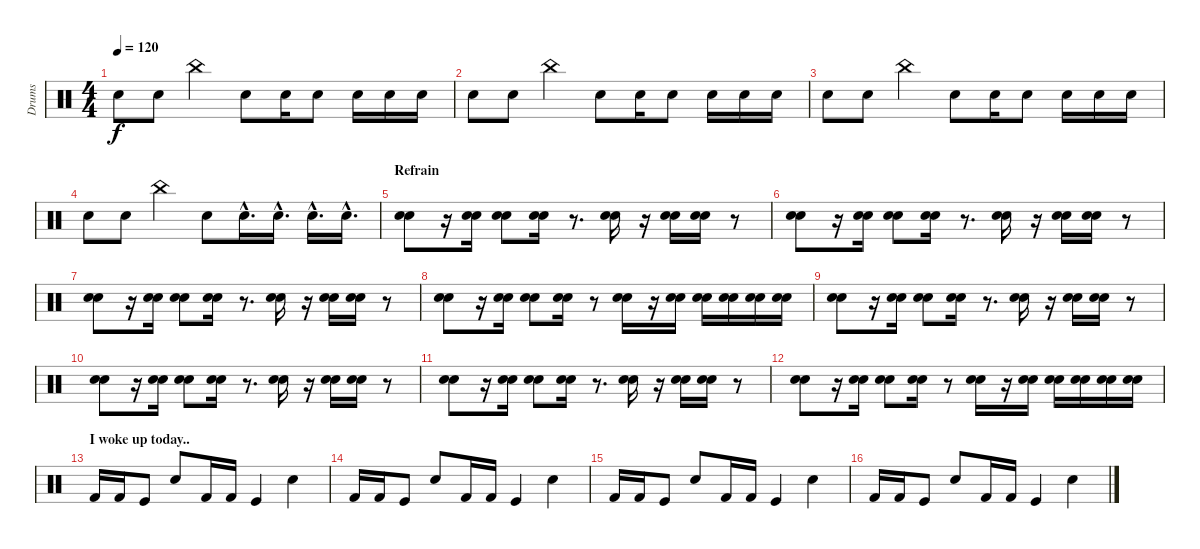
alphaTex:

\track ("Drums" "Drums") {instrument percussion}
\staff {score}
\articulation defaults
\ts (4 4)
\tempo 120
\clef neutral
\ks c "Snare (hit) 2".8{dy f} "Snare (hit) 2".8 "China (hit)".4 "Snare (hit) 2".8 "Snare (hit) 2".16 "Snare (hit) 2".8 "Snare (hit) 2".16 "Snare (hit) 2".16 "Snare (hit) 2".16
|
"Snare (hit) 2".8 "Snare (hit) 2".8 "China (hit)".4 "Snare (hit) 2".8 "Snare (hit) 2".16 "Snare (hit) 2".8 "Snare (hit) 2".16 "Snare (hit) 2".16 "Snare (hit) 2".16 |
"Snare (hit) 2".8 "Snare (hit) 2".8 "China (hit)".4 "Snare (hit) 2".8 "Snare (hit) 2".16 "Snare (hit) 2".8 "Snare (hit) 2".16 "Snare (hit) 2".16 "Snare (hit) 2".16 |
"Snare (hit) 2".8 "Snare (hit) 2".8 "China (hit)".4 "Snare (hit) 2".8 "Snare (hit) 2"{hac}.16{d} "Snare (hit) 2"{hac}.16{d} "Snare (hit) 2"{hac}.16{d} "Snare (hit) 2"{hac}.16{d} |
\section ("" "Refrain")
("Snare (hit) 2" "Electric Snare (hit)").8{volume 16} r.16 ("Snare (hit) 2" "Electric Snare (hit)").16 ("Snare (hit) 2" "Electric Snare (hit)").8 ("Snare (hit) 2" "Electric Snare (hit)").16 r.8{d} ("Snare (hit) 2" "Electric Snare (hit)").16 r.16 ("Snare (hit) 2" "Electric Snare (hit)").16 ("Snare (hit) 2" "Electric Snare (hit)").16 r.8 |
("Snare (hit) 2" "Electric Snare (hit)").8 r.16 ("Snare (hit) 2" "Electric Snare (hit)").16 ("Snare (hit) 2" "Electric Snare (hit)").8 ("Snare (hit) 2" "Electric Snare (hit)").16 r.8{d} ("Snare (hit) 2" "Electric Snare (hit)").16 r.16 ("Snare (hit) 2" "Electric Snare (hit)").16 ("Snare (hit) 2" "Electric Snare (hit)").16 r.8 |
("Snare (hit) 2" "Electric Snare (hit)").8 r.16 ("Snare (hit) 2" "Electric Snare (hit)").16 ("Snare (hit) 2" "Electric Snare (hit)").8 ("Snare (hit) 2" "Electric Snare (hit)").16 r.8{d} ("Snare (hit) 2" "Electric Snare (hit)").16 r.16 ("Snare (hit) 2" "Electric Snare (hit)").16 ("Snare (hit) 2" "Electric Snare (hit)").16 r.8 |
("Snare (hit) 2" "Electric Snare (hit)").8 r.16 ("Snare (hit) 2" "Electric Snare (hit)").16 ("Snare (hit) 2" "Electric Snare (hit)").8 ("Snare (hit) 2" "Electric Snare (hit)").16 r.8 ("Snare (hit) 2" "Electric Snare (hit)").16 r.16 ("Snare (hit) 2" "Electric Snare (hit)").16 ("Snare (hit) 2" "Electric Snare (hit)").16 ("Snare (hit) 2" "Electric Snare (hit)").16 ("Snare (hit) 2" "Electric Snare (hit)").16 ("Snare (hit) 2" "Electric Snare (hit)").16 |
("Snare (hit) 2" "Electric Snare (hit)").8{volume 13} r.16 ("Snare (hit) 2" "Electric Snare (hit)").16 ("Snare (hit) 2" "Electric Snare (hit)").8 ("Snare (hit) 2" "Electric Snare (hit)").16 r.8{d} ("Snare (hit) 2" "Electric Snare (hit)").16 r.16 ("Snare (hit) 2" "Electric Snare (hit)").16 ("Snare (hit) 2" "Electric Snare (hit)").16 r.8 |
("Snare (hit) 2" "Electric Snare (hit)").8 r.16 ("Snare (hit) 2" "Electric Snare (hit)").16 ("Snare (hit) 2" "Electric Snare (hit)").8 ("Snare (hit) 2" "Electric Snare (hit)").16 r.8{d} ("Snare (hit) 2" "Electric Snare (hit)").16 r.16 ("Snare (hit) 2" "Electric Snare (hit)").16 ("Snare (hit) 2" "Electric Snare (hit)").16 r.8 |
("Snare (hit) 2" "Electric Snare (hit)").8 r.16 ("Snare (hit) 2" "Electric Snare (hit)").16 ("Snare (hit) 2" "Electric Snare (hit)").8 ("Snare (hit) 2" "Electric Snare (hit)").16 r.8{d} ("Snare (hit) 2" "Electric Snare (hit)").16 r.16 ("Snare (hit) 2" "Electric Snare (hit)").16 ("Snare (hit) 2" "Electric Snare (hit)").16 r.8 |
("Snare (hit) 2" "Electric Snare (hit)").8 r.16 ("Snare (hit) 2" "Electric Snare (hit)").16 ("Snare (hit) 2" "Electric Snare (hit)").8 ("Snare (hit) 2" "Electric Snare (hit)").16 r.8 ("Snare (hit) 2" "Electric Snare (hit)").16 r.16 ("Snare (hit) 2" "Electric Snare (hit)").16 ("Snare (hit) 2" "Electric Snare (hit)").16 ("Snare (hit) 2" "Electric Snare (hit)").16 ("Snare (hit) 2" "Electric Snare (hit)").16 ("Snare (hit) 2" "Electric Snare (hit)").16 |
\section ("" "I woke up today..")
"Kick (hit) 2".16 "Kick (hit) 2".16 "Kick (hit)".8 "Electric Snare (hit)".8 "Kick (hit) 2".16 "Kick (hit) 2".16 "Kick (hit)".4 "Electric Snare (hit)".4 |
"Kick (hit) 2".16 "Kick (hit) 2".16 "Kick (hit)".8 "Electric Snare (hit)".8 "Kick (hit) 2".16 "Kick (hit) 2".16 "Kick (hit)".4 "Electric Snare (hit)".4 |
"Kick (hit) 2".16 "Kick (hit) 2".16 "Kick (hit)".8 "Electric Snare (hit)".8 "Kick (hit) 2".16 "Kick (hit) 2".16 "Kick (hit)".4 "Electric Snare (hit)".4 |
"Kick (hit) 2".16 "Kick (hit) 2".16 "Kick (hit)".8 "Electric Snare (hit)".8 "Kick (hit) 2".16 "Kick (hit) 2".16 "Kick (hit)".4 "Electric Snare (hit)".4
